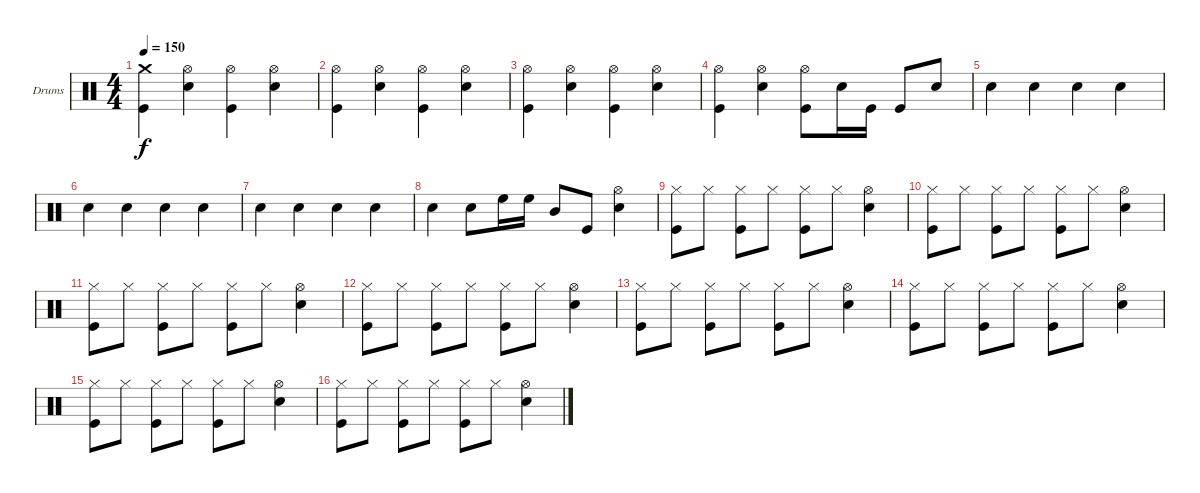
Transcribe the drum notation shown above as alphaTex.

\bracketExtendMode groupsimilarinstruments
\firstSystemTrackNameOrientation horizontal
\otherSystemsTrackNameOrientation horizontal
\track ("Drumkit" "Drums") {instrument percussion}
\staff {score}
\articulation defaults
\ts (4 4)
\tempo 150
\clef neutral
\ks c
("Crash medium (hit)" "Kick (hit)").4{dy f} ("Hi-Hat (open)" "Snare (hit) 2").4 ("Hi-Hat (open)" "Kick (hit)").4 ("Hi-Hat (open)" "Snare (hit) 2").4 |
("Hi-Hat (open)" "Kick (hit)").4 ("Hi-Hat (open)" "Snare (hit) 2").4 ("Hi-Hat (open)" "Kick (hit)").4 ("Hi-Hat (open)" "Snare (hit) 2").4 |
("Hi-Hat (open)" "Kick (hit)").4 ("Hi-Hat (open)" "Snare (hit) 2").4 ("Hi-Hat (open)" "Kick (hit)").4 ("Hi-Hat (open)" "Snare (hit) 2").4 |
("Hi-Hat (open)" "Kick (hit)").4 ("Hi-Hat (open)" "Snare (hit) 2").4 ("Hi-Hat (open)" "Kick (hit)").8 "Snare (hit) 2".16 "Kick (hit)".16 "Kick (hit)".8 "Snare (hit) 2".8 |
"Snare (hit) 2".4 "Snare (hit) 2".4 "Snare (hit) 2".4 "Snare (hit) 2".4 |
"Snare (hit) 2".4 "Snare (hit) 2".4 "Snare (hit) 2".4 "Snare (hit) 2".4 |
"Snare (hit) 2".4 "Snare (hit) 2".4 "Snare (hit) 2".4 "Snare (hit) 2".4 |
"Snare (hit) 2".4 "Snare (hit) 2".8 "High Floor Tom (hit)".16 "High Floor Tom (hit)".16 "Mid Tom (hit)".8 "Kick (hit)".8 ("Hi-Hat (open)" "Snare (hit) 2").4 |
("Hi-Hat (closed)" "Kick (hit)").8 "Hi-Hat (closed)".8 ("Hi-Hat (closed)" "Kick (hit)").8 "Hi-Hat (closed)".8 ("Hi-Hat (closed)" "Kick (hit)").8 "Hi-Hat (closed)".8 ("Hi-Hat (open)" "Snare (hit) 2").4 |
("Hi-Hat (closed)" "Kick (hit)").8 "Hi-Hat (closed)".8 ("Hi-Hat (closed)" "Kick (hit)").8 "Hi-Hat (closed)".8 ("Hi-Hat (closed)" "Kick (hit)").8 "Hi-Hat (closed)".8 ("Hi-Hat (open)" "Snare (hit) 2").4 |
("Hi-Hat (closed)" "Kick (hit)").8 "Hi-Hat (closed)".8 ("Hi-Hat (closed)" "Kick (hit)").8 "Hi-Hat (closed)".8 ("Hi-Hat (closed)" "Kick (hit)").8 "Hi-Hat (closed)".8 ("Hi-Hat (open)" "Snare (hit) 2").4 |
("Hi-Hat (closed)" "Kick (hit)").8 "Hi-Hat (closed)".8 ("Hi-Hat (closed)" "Kick (hit)").8 "Hi-Hat (closed)".8 ("Hi-Hat (closed)" "Kick (hit)").8 "Hi-Hat (closed)".8 ("Hi-Hat (open)" "Snare (hit) 2").4 |
("Hi-Hat (closed)" "Kick (hit)").8 "Hi-Hat (closed)".8 ("Hi-Hat (closed)" "Kick (hit)").8 "Hi-Hat (closed)".8 ("Hi-Hat (closed)" "Kick (hit)").8 "Hi-Hat (closed)".8 ("Hi-Hat (open)" "Snare (hit) 2").4 |
("Hi-Hat (closed)" "Kick (hit)").8 "Hi-Hat (closed)".8 ("Hi-Hat (closed)" "Kick (hit)").8 "Hi-Hat (closed)".8 ("Hi-Hat (closed)" "Kick (hit)").8 "Hi-Hat (closed)".8 ("Hi-Hat (open)" "Snare (hit) 2").4 |
("Hi-Hat (closed)" "Kick (hit)").8 "Hi-Hat (closed)".8 ("Hi-Hat (closed)" "Kick (hit)").8 "Hi-Hat (closed)".8 ("Hi-Hat (closed)" "Kick (hit)").8 "Hi-Hat (closed)".8 ("Hi-Hat (open)" "Snare (hit) 2").4 |
("Hi-Hat (closed)" "Kick (hit)").8 "Hi-Hat (closed)".8 ("Hi-Hat (closed)" "Kick (hit)").8 "Hi-Hat (closed)".8 ("Hi-Hat (closed)" "Kick (hit)").8 "Hi-Hat (closed)".8 ("Hi-Hat (open)" "Snare (hit) 2").4
